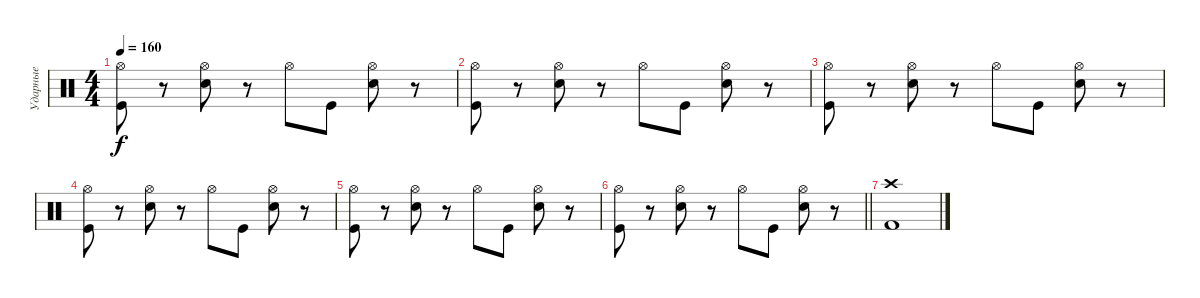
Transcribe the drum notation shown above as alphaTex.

\track ("Ударные" "Ударные") {instrument percussion}
\staff {score}
\articulation defaults
\ts (4 4)
\tempo 160
\clef neutral
\ks c
("Kick (hit)" "Hi-Hat (open)").8{dy f} r.8 ("Snare (hit) 2" "Hi-Hat (open)").8 r.8 "Hi-Hat (open)".8 "Kick (hit)".8 ("Snare (hit) 2" "Hi-Hat (open)").8 r.8 |
("Kick (hit)" "Hi-Hat (open)").8 r.8 ("Snare (hit) 2" "Hi-Hat (open)").8 r.8 "Hi-Hat (open)".8 "Kick (hit)".8 ("Snare (hit) 2" "Hi-Hat (open)").8 r.8 |
("Kick (hit)" "Hi-Hat (open)").8 r.8 ("Snare (hit) 2" "Hi-Hat (open)").8 r.8 "Hi-Hat (open)".8 "Kick (hit)".8 ("Snare (hit) 2" "Hi-Hat (open)").8 r.8 |
("Kick (hit)" "Hi-Hat (open)").8 r.8 ("Snare (hit) 2" "Hi-Hat (open)").8 r.8 "Hi-Hat (open)".8 "Kick (hit)".8 ("Snare (hit) 2" "Hi-Hat (open)").8 r.8 |
("Kick (hit)" "Hi-Hat (open)").8 r.8 ("Snare (hit) 2" "Hi-Hat (open)").8 r.8 "Hi-Hat (open)".8 "Kick (hit)".8 ("Snare (hit) 2" "Hi-Hat (open)").8 r.8 |
\barLineRight lightlight
("Kick (hit)" "Hi-Hat (open)").8 r.8 ("Snare (hit) 2" "Hi-Hat (open)").8 r.8 "Hi-Hat (open)".8 "Kick (hit)".8 ("Snare (hit) 2" "Hi-Hat (open)").8 r.8 |
("Crash high (hit)" "Kick (hit) 2").1
